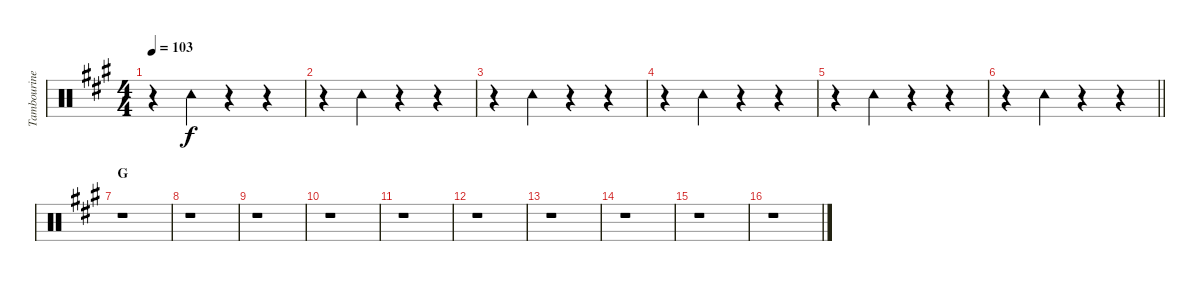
\track ("Tambourine" "Tambourine") {instrument percussion}
\staff {score}
\articulation defaults
\ts (4 4)
\tempo 103
\clef neutral
\ks a
r.4{dy f} "Tambourine (hit)".4 r.4 r.4 |
r.4 "Tambourine (hit)".4 r.4 r.4 |
r.4 "Tambourine (hit)".4 r.4 r.4 |
r.4 "Tambourine (hit)".4 r.4 r.4 |
r.4 "Tambourine (hit)".4 r.4 r.4 |
\barLineRight lightlight
r.4 "Tambourine (hit)".4 r.4 r.4 |
\section ("" "G")
r.1 |
r.1 |
r.1 |
r.1 |
r.1 |
r.1 |
r.1 |
r.1 |
r.1 |
r.1
